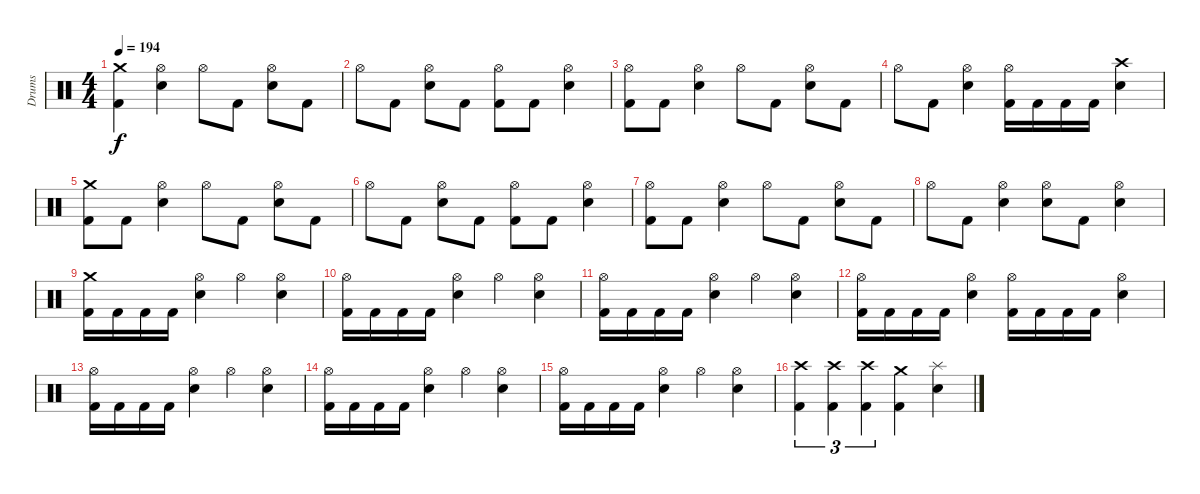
\track ("Drums" "Drums") {instrument percussion}
\staff {score}
\articulation defaults
\ts (4 4)
\tempo 194
\clef neutral
\ks c
("Crash medium (hit)" "Kick (hit) 2").4{dy f} ("Hi-Hat (open)" "Electric Snare (hit)").4 "Hi-Hat (open)".8 "Kick (hit) 2".8 ("Hi-Hat (open)" "Electric Snare (hit)").8 "Kick (hit) 2".8 |
"Hi-Hat (open)".8 "Kick (hit) 2".8 ("Hi-Hat (open)" "Electric Snare (hit)").8 "Kick (hit) 2".8 ("Hi-Hat (open)" "Kick (hit) 2").8 "Kick (hit) 2".8 ("Hi-Hat (open)" "Electric Snare (hit)").4 |
("Hi-Hat (open)" "Kick (hit) 2").8 "Kick (hit) 2".8 ("Hi-Hat (open)" "Electric Snare (hit)").4 "Hi-Hat (open)".8 "Kick (hit) 2".8 ("Hi-Hat (open)" "Electric Snare (hit)").8 "Kick (hit) 2".8 |
"Hi-Hat (open)".8 "Kick (hit) 2".8 ("Hi-Hat (open)" "Electric Snare (hit)").4 ("Hi-Hat (open)" "Kick (hit) 2").16 "Kick (hit) 2".16 "Kick (hit) 2".16 "Kick (hit) 2".16 ("Crash high (hit)" "Electric Snare (hit)").4 |
("Crash medium (hit)" "Kick (hit) 2").8 "Kick (hit) 2".8 ("Hi-Hat (open)" "Electric Snare (hit)").4 "Hi-Hat (open)".8 "Kick (hit) 2".8 ("Hi-Hat (open)" "Electric Snare (hit)").8 "Kick (hit) 2".8 |
"Hi-Hat (open)".8 "Kick (hit) 2".8 ("Hi-Hat (open)" "Electric Snare (hit)").8 "Kick (hit) 2".8 ("Hi-Hat (open)" "Kick (hit) 2").8 "Kick (hit) 2".8 ("Hi-Hat (open)" "Electric Snare (hit)").4 |
("Hi-Hat (open)" "Kick (hit) 2").8 "Kick (hit) 2".8 ("Hi-Hat (open)" "Electric Snare (hit)").4 "Hi-Hat (open)".8 "Kick (hit) 2".8 ("Hi-Hat (open)" "Electric Snare (hit)").8 "Kick (hit) 2".8 |
"Hi-Hat (open)".8 "Kick (hit) 2".8 ("Hi-Hat (open)" "Electric Snare (hit)").4 ("Hi-Hat (open)" "Electric Snare (hit)").8 "Kick (hit) 2".8 ("Hi-Hat (open)" "Electric Snare (hit)").4 |
("Crash medium (hit)" "Kick (hit) 2").16 "Kick (hit) 2".16 "Kick (hit) 2".16 "Kick (hit) 2".16 ("Hi-Hat (open)" "Electric Snare (hit)").4 "Hi-Hat (open)".4 ("Hi-Hat (open)" "Electric Snare (hit)").4 |
("Hi-Hat (open)" "Kick (hit) 2").16 "Kick (hit) 2".16 "Kick (hit) 2".16 "Kick (hit) 2".16 ("Hi-Hat (open)" "Electric Snare (hit)").4 "Hi-Hat (open)".4 ("Hi-Hat (open)" "Electric Snare (hit)").4 |
("Hi-Hat (open)" "Kick (hit) 2").16 "Kick (hit) 2".16 "Kick (hit) 2".16 "Kick (hit) 2".16 ("Hi-Hat (open)" "Electric Snare (hit)").4 "Hi-Hat (open)".4 ("Hi-Hat (open)" "Electric Snare (hit)").4 |
("Hi-Hat (open)" "Kick (hit) 2").16 "Kick (hit) 2".16 "Kick (hit) 2".16 "Kick (hit) 2".16 ("Hi-Hat (open)" "Electric Snare (hit)").4 ("Hi-Hat (open)" "Kick (hit) 2").16 "Kick (hit) 2".16 "Kick (hit) 2".16 "Kick (hit) 2".16 ("Hi-Hat (open)" "Electric Snare (hit)").4 |
("Hi-Hat (open)" "Kick (hit) 2").16 "Kick (hit) 2".16 "Kick (hit) 2".16 "Kick (hit) 2".16 ("Hi-Hat (open)" "Electric Snare (hit)").4 "Hi-Hat (open)".4 ("Hi-Hat (open)" "Electric Snare (hit)").4 |
("Hi-Hat (open)" "Kick (hit) 2").16 "Kick (hit) 2".16 "Kick (hit) 2".16 "Kick (hit) 2".16 ("Hi-Hat (open)" "Electric Snare (hit)").4 "Hi-Hat (open)".4 ("Hi-Hat (open)" "Electric Snare (hit)").4 |
("Hi-Hat (open)" "Kick (hit) 2").16 "Kick (hit) 2".16 "Kick (hit) 2".16 "Kick (hit) 2".16 ("Hi-Hat (open)" "Electric Snare (hit)").4 "Hi-Hat (open)".4 ("Hi-Hat (open)" "Electric Snare (hit)").4 |
("Crash high (hit)" "Kick (hit) 2").4{tu (3 2)} ("Crash high (hit)" "Kick (hit) 2").4{tu (3 2)} ("Crash high (hit)" "Kick (hit) 2").4{tu (3 2)} ("Crash medium (hit)" "Kick (hit) 2").4 ("Splash (hit)" "Electric Snare (hit)").4
